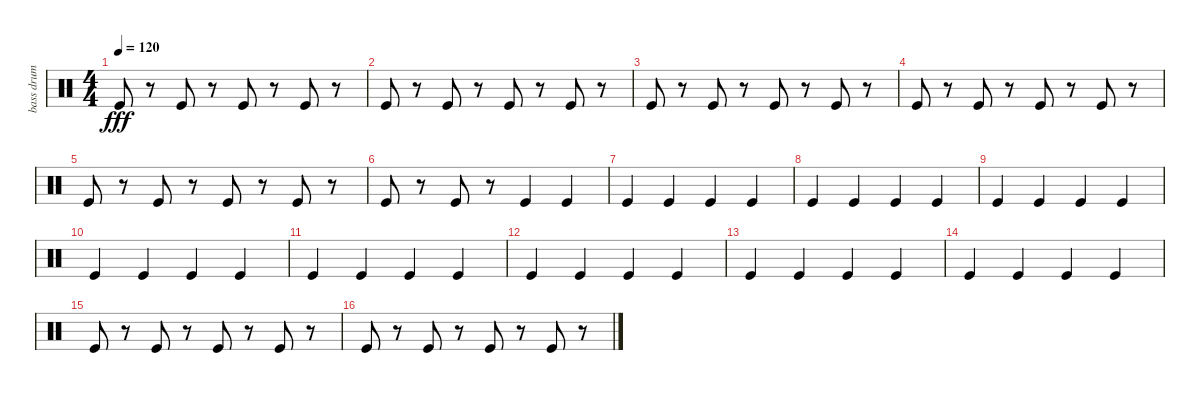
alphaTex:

\track ("bass drum" "bass drum") {instrument percussion}
\staff {score}
\articulation defaults
\ts (4 4)
\tempo 120
\clef neutral
\ks c "Kick (hit)".8{dy fff}
r.8 "Kick (hit)".8 r.8 "Kick (hit)".8 r.8 "Kick (hit)".8 r.8 |
"Kick (hit)".8 r.8 "Kick (hit)".8 r.8 "Kick (hit)".8 r.8 "Kick (hit)".8 r.8 |
"Kick (hit)".8 r.8 "Kick (hit)".8 r.8 "Kick (hit)".8 r.8 "Kick (hit)".8 r.8 |
"Kick (hit)".8 r.8 "Kick (hit)".8 r.8 "Kick (hit)".8 r.8 "Kick (hit)".8 r.8 |
"Kick (hit)".8 r.8 "Kick (hit)".8 r.8 "Kick (hit)".8 r.8 "Kick (hit)".8 r.8 |
"Kick (hit)".8 r.8 "Kick (hit)".8 r.8 "Kick (hit)".4 "Kick (hit)".4 |
"Kick (hit)".4 "Kick (hit)".4 "Kick (hit)".4 "Kick (hit)".4 |
"Kick (hit)".4 "Kick (hit)".4 "Kick (hit)".4 "Kick (hit)".4 |
"Kick (hit)".4 "Kick (hit)".4 "Kick (hit)".4 "Kick (hit)".4 |
"Kick (hit)".4 "Kick (hit)".4 "Kick (hit)".4 "Kick (hit)".4 |
"Kick (hit)".4 "Kick (hit)".4 "Kick (hit)".4 "Kick (hit)".4 |
"Kick (hit)".4 "Kick (hit)".4 "Kick (hit)".4 "Kick (hit)".4 |
"Kick (hit)".4 "Kick (hit)".4 "Kick (hit)".4 "Kick (hit)".4 |
"Kick (hit)".4 "Kick (hit)".4 "Kick (hit)".4 "Kick (hit)".4 |
"Kick (hit)".8 r.8 "Kick (hit)".8 r.8 "Kick (hit)".8 r.8 "Kick (hit)".8 r.8 |
"Kick (hit)".8 r.8 "Kick (hit)".8 r.8 "Kick (hit)".8 r.8 "Kick (hit)".8 r.8
